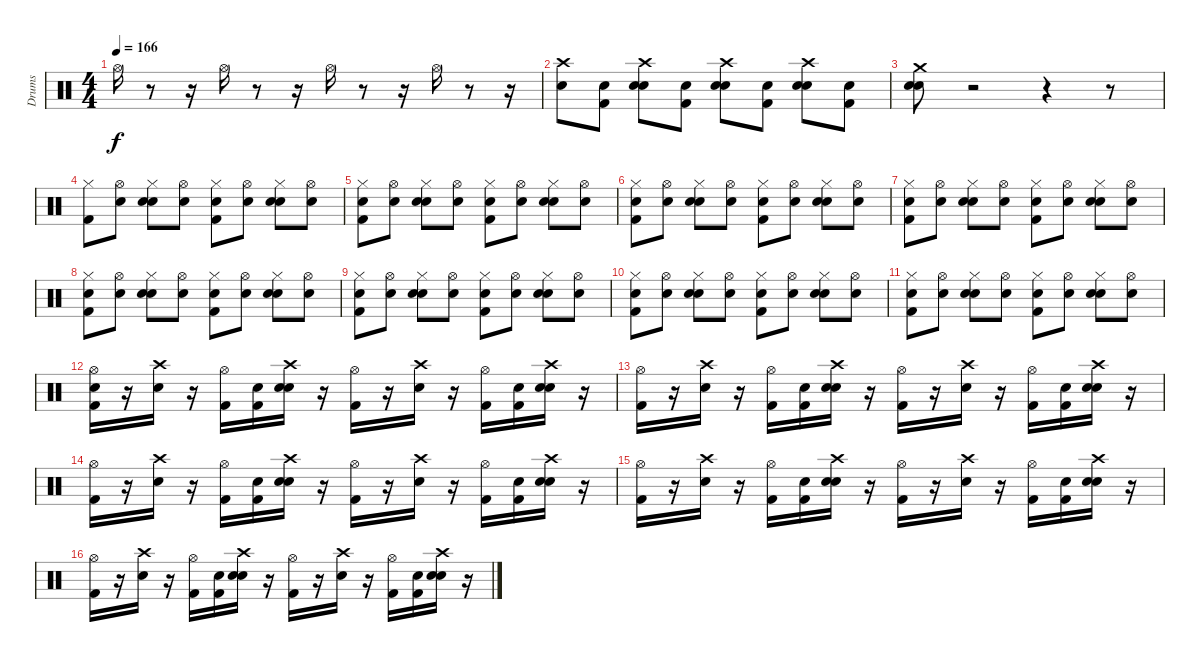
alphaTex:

\track ("Drums" "Drums") {instrument percussion}
\staff {score}
\articulation defaults
\ts (4 4)
\tempo 166
\clef neutral
\ks c "Hi-Hat (open)".16{dy f}
r.8 r.16 "Hi-Hat (open)".16 r.8 r.16 "Hi-Hat (open)".16 r.8 r.16 "Hi-Hat (open)".16 r.8 r.16 |
("Crash high (hit)" "Electric Snare (hit)").8 ("Snare (hit)" "Kick (hit) 2").8 ("Snare (hit)" "Crash high (hit)" "Electric Snare (hit)").8 ("Snare (hit)" "Kick (hit) 2").8 ("Snare (hit)" "Crash high (hit)" "Electric Snare (hit)").8 ("Snare (hit)" "Kick (hit) 2").8 ("Snare (hit)" "Crash high (hit)" "Electric Snare (hit)").8 ("Snare (hit)" "Kick (hit) 2").8 |
("Snare (hit)" "Crash medium (hit)" "Electric Snare (hit)").8 r.2 r.4 r.8 |
("Hi-Hat (closed)" "Kick (hit) 2").8 ("Snare (hit)" "Hi-Hat (open)").8 ("Snare (hit)" "Hi-Hat (closed)" "Snare (hit) 2").8 ("Snare (hit)" "Hi-Hat (open)").8 ("Snare (hit)" "Hi-Hat (closed)" "Kick (hit) 2").8 ("Snare (hit)" "Hi-Hat (open)").8 ("Snare (hit)" "Hi-Hat (closed)" "Snare (hit) 2").8 ("Snare (hit)" "Hi-Hat (open)").8 |
("Snare (hit)" "Hi-Hat (closed)" "Kick (hit) 2").8 ("Snare (hit)" "Hi-Hat (open)").8 ("Snare (hit)" "Hi-Hat (closed)" "Snare (hit) 2").8 ("Snare (hit)" "Hi-Hat (open)").8 ("Snare (hit)" "Hi-Hat (closed)" "Kick (hit) 2").8 ("Snare (hit)" "Hi-Hat (open)").8 ("Snare (hit)" "Hi-Hat (closed)" "Snare (hit) 2").8 ("Snare (hit)" "Hi-Hat (open)").8 |
("Snare (hit)" "Hi-Hat (closed)" "Kick (hit) 2").8 ("Snare (hit)" "Hi-Hat (open)").8 ("Snare (hit)" "Hi-Hat (closed)" "Snare (hit) 2").8 ("Snare (hit)" "Hi-Hat (open)").8 ("Snare (hit)" "Hi-Hat (closed)" "Kick (hit) 2").8 ("Snare (hit)" "Hi-Hat (open)").8 ("Snare (hit)" "Hi-Hat (closed)" "Snare (hit) 2").8 ("Snare (hit)" "Hi-Hat (open)").8 |
("Snare (hit)" "Hi-Hat (closed)" "Kick (hit) 2").8 ("Snare (hit)" "Hi-Hat (open)").8 ("Snare (hit)" "Hi-Hat (closed)" "Snare (hit) 2").8 ("Snare (hit)" "Hi-Hat (open)").8 ("Snare (hit)" "Hi-Hat (closed)" "Kick (hit) 2").8 ("Snare (hit)" "Hi-Hat (open)").8 ("Snare (hit)" "Hi-Hat (closed)" "Snare (hit) 2").8 ("Snare (hit)" "Hi-Hat (open)").8 |
("Snare (hit)" "Hi-Hat (closed)" "Kick (hit) 2").8 ("Snare (hit)" "Hi-Hat (open)").8 ("Snare (hit)" "Hi-Hat (closed)" "Snare (hit) 2").8 ("Snare (hit)" "Hi-Hat (open)").8 ("Snare (hit)" "Hi-Hat (closed)" "Kick (hit) 2").8 ("Snare (hit)" "Hi-Hat (open)").8 ("Snare (hit)" "Hi-Hat (closed)" "Snare (hit) 2").8 ("Snare (hit)" "Hi-Hat (open)").8 |
("Snare (hit)" "Hi-Hat (closed)" "Kick (hit) 2").8 ("Snare (hit)" "Hi-Hat (open)").8 ("Snare (hit)" "Hi-Hat (closed)" "Snare (hit) 2").8 ("Snare (hit)" "Hi-Hat (open)").8 ("Snare (hit)" "Hi-Hat (closed)" "Kick (hit) 2").8 ("Snare (hit)" "Hi-Hat (open)").8 ("Snare (hit)" "Hi-Hat (closed)" "Snare (hit) 2").8 ("Snare (hit)" "Hi-Hat (open)").8 |
("Snare (hit)" "Hi-Hat (closed)" "Kick (hit) 2").8 ("Snare (hit)" "Hi-Hat (open)").8 ("Snare (hit)" "Hi-Hat (closed)" "Snare (hit) 2").8 ("Snare (hit)" "Hi-Hat (open)").8 ("Snare (hit)" "Hi-Hat (closed)" "Kick (hit) 2").8 ("Snare (hit)" "Hi-Hat (open)").8 ("Snare (hit)" "Hi-Hat (closed)" "Snare (hit) 2").8 ("Snare (hit)" "Hi-Hat (open)").8 |
("Snare (hit)" "Hi-Hat (closed)" "Kick (hit) 2").8 ("Snare (hit)" "Hi-Hat (open)").8 ("Snare (hit)" "Hi-Hat (closed)" "Snare (hit) 2").8 ("Snare (hit)" "Hi-Hat (open)").8 ("Snare (hit)" "Hi-Hat (closed)" "Kick (hit) 2").8 ("Snare (hit)" "Hi-Hat (open)").8 ("Snare (hit)" "Hi-Hat (closed)" "Snare (hit) 2").8 ("Snare (hit)" "Hi-Hat (open)").8 |
("Snare (hit)" "Hi-Hat (open)" "Kick (hit) 2").16 r.16 ("Crash high (hit)" "Electric Snare (hit)").16 r.16 ("Hi-Hat (open)" "Kick (hit) 2").16 ("Snare (hit)" "Kick (hit) 2").16 ("Snare (hit)" "Crash high (hit)" "Electric Snare (hit)").16 r.16 ("Hi-Hat (open)" "Kick (hit) 2").16 r.16 ("Electric Snare (hit)" "Crash high (hit)").16 r.16 ("Hi-Hat (open)" "Kick (hit) 2").16 ("Snare (hit)" "Kick (hit) 2").16 ("Snare (hit)" "Crash high (hit)" "Electric Snare (hit)").16 r.16 |
("Hi-Hat (open)" "Kick (hit) 2").16 r.16 ("Crash high (hit)" "Electric Snare (hit)").16 r.16 ("Hi-Hat (open)" "Kick (hit) 2").16 ("Snare (hit)" "Kick (hit) 2").16 ("Snare (hit)" "Crash high (hit)" "Electric Snare (hit)").16 r.16 ("Hi-Hat (open)" "Kick (hit) 2").16 r.16 ("Electric Snare (hit)" "Crash high (hit)").16 r.16 ("Hi-Hat (open)" "Kick (hit) 2").16 ("Snare (hit)" "Kick (hit) 2").16 ("Snare (hit)" "Crash high (hit)" "Electric Snare (hit)").16 r.16 |
("Hi-Hat (open)" "Kick (hit) 2").16 r.16 ("Crash high (hit)" "Electric Snare (hit)").16 r.16 ("Hi-Hat (open)" "Kick (hit) 2").16 ("Snare (hit)" "Kick (hit) 2").16 ("Snare (hit)" "Crash high (hit)" "Electric Snare (hit)").16 r.16 ("Hi-Hat (open)" "Kick (hit) 2").16 r.16 ("Electric Snare (hit)" "Crash high (hit)").16 r.16 ("Hi-Hat (open)" "Kick (hit) 2").16 ("Snare (hit)" "Kick (hit) 2").16 ("Snare (hit)" "Crash high (hit)" "Electric Snare (hit)").16 r.16 |
("Hi-Hat (open)" "Kick (hit) 2").16 r.16 ("Crash high (hit)" "Electric Snare (hit)").16 r.16 ("Hi-Hat (open)" "Kick (hit) 2").16 ("Snare (hit)" "Kick (hit) 2").16 ("Snare (hit)" "Crash high (hit)" "Electric Snare (hit)").16 r.16 ("Hi-Hat (open)" "Kick (hit) 2").16 r.16 ("Electric Snare (hit)" "Crash high (hit)").16 r.16 ("Hi-Hat (open)" "Kick (hit) 2").16 ("Snare (hit)" "Kick (hit) 2").16 ("Snare (hit)" "Crash high (hit)" "Electric Snare (hit)").16 r.16 |
("Hi-Hat (open)" "Kick (hit) 2").16 r.16 ("Crash high (hit)" "Electric Snare (hit)").16 r.16 ("Hi-Hat (open)" "Kick (hit) 2").16 ("Snare (hit)" "Kick (hit) 2").16 ("Snare (hit)" "Crash high (hit)" "Electric Snare (hit)").16 r.16 ("Hi-Hat (open)" "Kick (hit) 2").16 r.16 ("Electric Snare (hit)" "Crash high (hit)").16 r.16 ("Hi-Hat (open)" "Kick (hit) 2").16 ("Snare (hit)" "Kick (hit) 2").16 ("Snare (hit)" "Crash high (hit)" "Electric Snare (hit)").16 r.16
